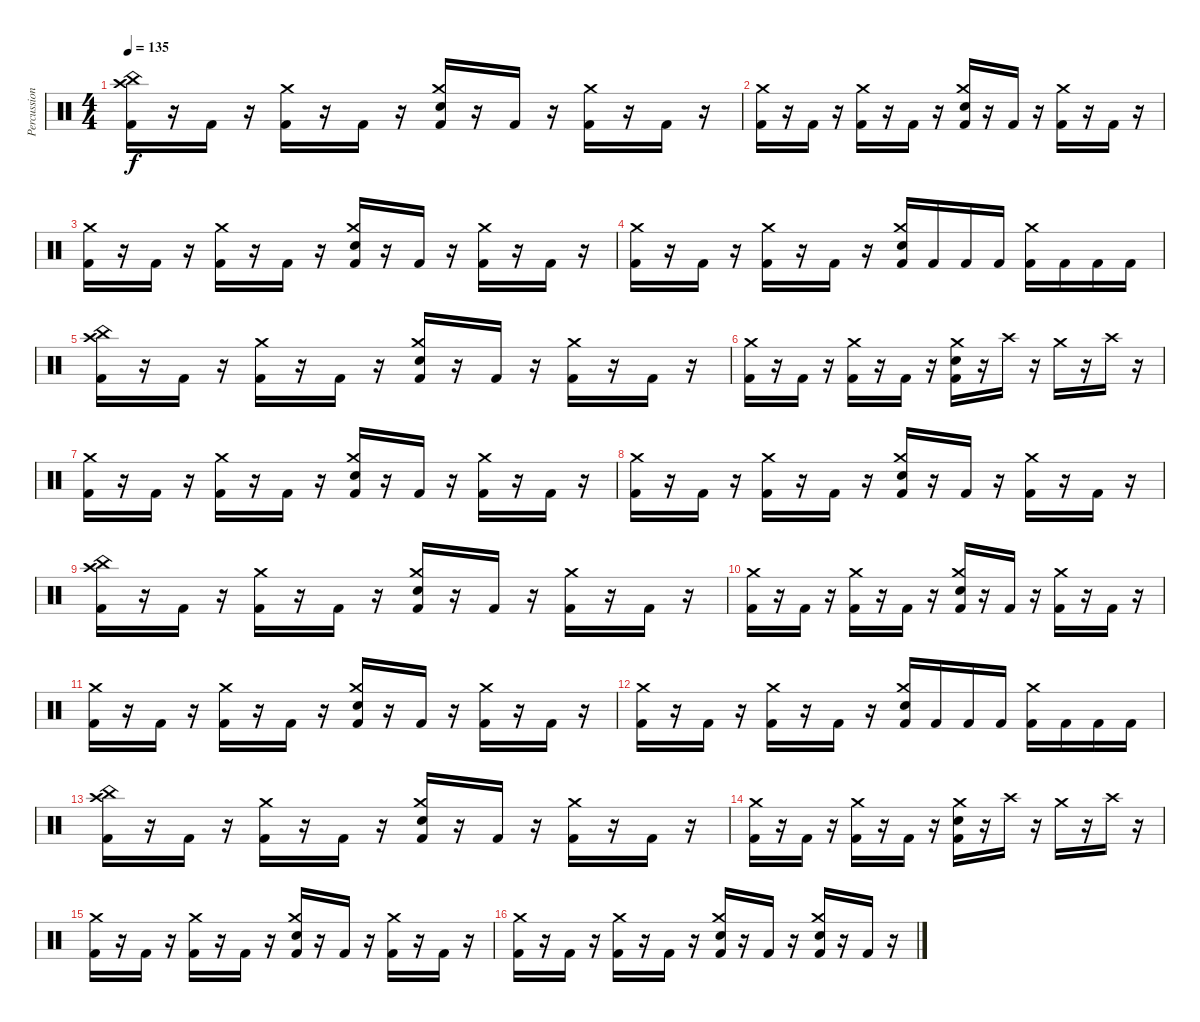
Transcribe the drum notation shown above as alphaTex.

\track ("Percussion" "Percussion") {instrument percussion}
\staff {score}
\articulation defaults
\ts (4 4)
\tempo 135
\clef neutral
\ks c
("Crash high (hit)" "China (hit)" "Kick (hit) 2").16{dy f} r.16 "Kick (hit) 2".16 r.16 ("Crash medium (hit)" "Kick (hit) 2").16 r.16 "Kick (hit) 2".16 r.16 ("Crash medium (hit)" "Snare (hit) 2" "Kick (hit) 2").16 r.16 "Kick (hit) 2".16 r.16 ("Crash medium (hit)" "Kick (hit) 2").16 r.16 "Kick (hit) 2".16 r.16 |
("Crash medium (hit)" "Kick (hit) 2").16 r.16 "Kick (hit) 2".16 r.16 ("Crash medium (hit)" "Kick (hit) 2").16 r.16 "Kick (hit) 2".16 r.16 ("Crash medium (hit)" "Snare (hit) 2" "Kick (hit) 2").16 r.16 "Kick (hit) 2".16 r.16 ("Crash medium (hit)" "Kick (hit) 2").16 r.16 "Kick (hit) 2".16 r.16 |
("Crash medium (hit)" "Kick (hit) 2").16 r.16 "Kick (hit) 2".16 r.16 ("Crash medium (hit)" "Kick (hit) 2").16 r.16 "Kick (hit) 2".16 r.16 ("Crash medium (hit)" "Snare (hit) 2" "Kick (hit) 2").16 r.16 "Kick (hit) 2".16 r.16 ("Crash medium (hit)" "Kick (hit) 2").16 r.16 "Kick (hit) 2".16 r.16 |
("Crash medium (hit)" "Kick (hit) 2").16 r.16 "Kick (hit) 2".16 r.16 ("Crash medium (hit)" "Kick (hit) 2").16 r.16 "Kick (hit) 2".16 r.16 ("Crash medium (hit)" "Snare (hit) 2" "Kick (hit) 2").16 "Kick (hit) 2".16 "Kick (hit) 2".16 "Kick (hit) 2".16 ("Crash medium (hit)" "Kick (hit) 2").16 "Kick (hit) 2".16 "Kick (hit) 2".16 "Kick (hit) 2".16 |
("Crash high (hit)" "China (hit)" "Kick (hit) 2").16 r.16 "Kick (hit) 2".16 r.16 ("Crash medium (hit)" "Kick (hit) 2").16 r.16 "Kick (hit) 2".16 r.16 ("Crash medium (hit)" "Snare (hit) 2" "Kick (hit) 2").16 r.16 "Kick (hit) 2".16 r.16 ("Crash medium (hit)" "Kick (hit) 2").16 r.16 "Kick (hit) 2".16 r.16 |
("Crash medium (hit)" "Kick (hit) 2").16 r.16 "Kick (hit) 2".16 r.16 ("Crash medium (hit)" "Kick (hit) 2").16 r.16 "Kick (hit) 2".16 r.16 ("Crash medium (hit)" "Snare (hit) 2" "Kick (hit) 2").16 r.16 "Crash high (hit)".16 r.16 "Crash medium (hit)".16 r.16 "Crash high (hit)".16 r.16 |
("Crash medium (hit)" "Kick (hit) 2").16 r.16 "Kick (hit) 2".16 r.16 ("Crash medium (hit)" "Kick (hit) 2").16 r.16 "Kick (hit) 2".16 r.16 ("Crash medium (hit)" "Snare (hit) 2" "Kick (hit) 2").16 r.16 "Kick (hit) 2".16 r.16 ("Crash medium (hit)" "Kick (hit) 2").16 r.16 "Kick (hit) 2".16 r.16 |
("Crash medium (hit)" "Kick (hit) 2").16 r.16 "Kick (hit) 2".16 r.16 ("Crash medium (hit)" "Kick (hit) 2").16 r.16 "Kick (hit) 2".16 r.16 ("Crash medium (hit)" "Snare (hit) 2" "Kick (hit) 2").16 r.16 "Kick (hit) 2".16 r.16 ("Crash medium (hit)" "Kick (hit) 2").16 r.16 "Kick (hit) 2".16 r.16 |
("Crash high (hit)" "China (hit)" "Kick (hit) 2").16 r.16 "Kick (hit) 2".16 r.16 ("Crash medium (hit)" "Kick (hit) 2").16 r.16 "Kick (hit) 2".16 r.16 ("Crash medium (hit)" "Snare (hit) 2" "Kick (hit) 2").16 r.16 "Kick (hit) 2".16 r.16 ("Crash medium (hit)" "Kick (hit) 2").16 r.16 "Kick (hit) 2".16 r.16 |
("Crash medium (hit)" "Kick (hit) 2").16 r.16 "Kick (hit) 2".16 r.16 ("Crash medium (hit)" "Kick (hit) 2").16 r.16 "Kick (hit) 2".16 r.16 ("Crash medium (hit)" "Snare (hit) 2" "Kick (hit) 2").16 r.16 "Kick (hit) 2".16 r.16 ("Crash medium (hit)" "Kick (hit) 2").16 r.16 "Kick (hit) 2".16 r.16 |
("Crash medium (hit)" "Kick (hit) 2").16 r.16 "Kick (hit) 2".16 r.16 ("Crash medium (hit)" "Kick (hit) 2").16 r.16 "Kick (hit) 2".16 r.16 ("Crash medium (hit)" "Snare (hit) 2" "Kick (hit) 2").16 r.16 "Kick (hit) 2".16 r.16 ("Crash medium (hit)" "Kick (hit) 2").16 r.16 "Kick (hit) 2".16 r.16 |
("Crash medium (hit)" "Kick (hit) 2").16 r.16 "Kick (hit) 2".16 r.16 ("Crash medium (hit)" "Kick (hit) 2").16 r.16 "Kick (hit) 2".16 r.16 ("Crash medium (hit)" "Snare (hit) 2" "Kick (hit) 2").16 "Kick (hit) 2".16 "Kick (hit) 2".16 "Kick (hit) 2".16 ("Crash medium (hit)" "Kick (hit) 2").16 "Kick (hit) 2".16 "Kick (hit) 2".16 "Kick (hit) 2".16 |
("Crash high (hit)" "China (hit)" "Kick (hit) 2").16 r.16 "Kick (hit) 2".16 r.16 ("Crash medium (hit)" "Kick (hit) 2").16 r.16 "Kick (hit) 2".16 r.16 ("Crash medium (hit)" "Snare (hit) 2" "Kick (hit) 2").16 r.16 "Kick (hit) 2".16 r.16 ("Crash medium (hit)" "Kick (hit) 2").16 r.16 "Kick (hit) 2".16 r.16 |
("Crash medium (hit)" "Kick (hit) 2").16 r.16 "Kick (hit) 2".16 r.16 ("Crash medium (hit)" "Kick (hit) 2").16 r.16 "Kick (hit) 2".16 r.16 ("Crash medium (hit)" "Snare (hit) 2" "Kick (hit) 2").16 r.16 "Crash high (hit)".16 r.16 "Crash medium (hit)".16 r.16 "Crash high (hit)".16 r.16 |
("Crash medium (hit)" "Kick (hit) 2").16 r.16 "Kick (hit) 2".16 r.16 ("Crash medium (hit)" "Kick (hit) 2").16 r.16 "Kick (hit) 2".16 r.16 ("Crash medium (hit)" "Snare (hit) 2" "Kick (hit) 2").16 r.16 "Kick (hit) 2".16 r.16 ("Crash medium (hit)" "Kick (hit) 2").16 r.16 "Kick (hit) 2".16 r.16 |
("Crash medium (hit)" "Kick (hit) 2").16 r.16 "Kick (hit) 2".16 r.16 ("Crash medium (hit)" "Kick (hit) 2").16 r.16 "Kick (hit) 2".16 r.16 ("Crash medium (hit)" "Snare (hit) 2" "Kick (hit) 2").16 r.16 "Kick (hit) 2".16 r.16 ("Crash medium (hit)" "Snare (hit) 2" "Kick (hit) 2").16 r.16 "Kick (hit) 2".16 r.16
